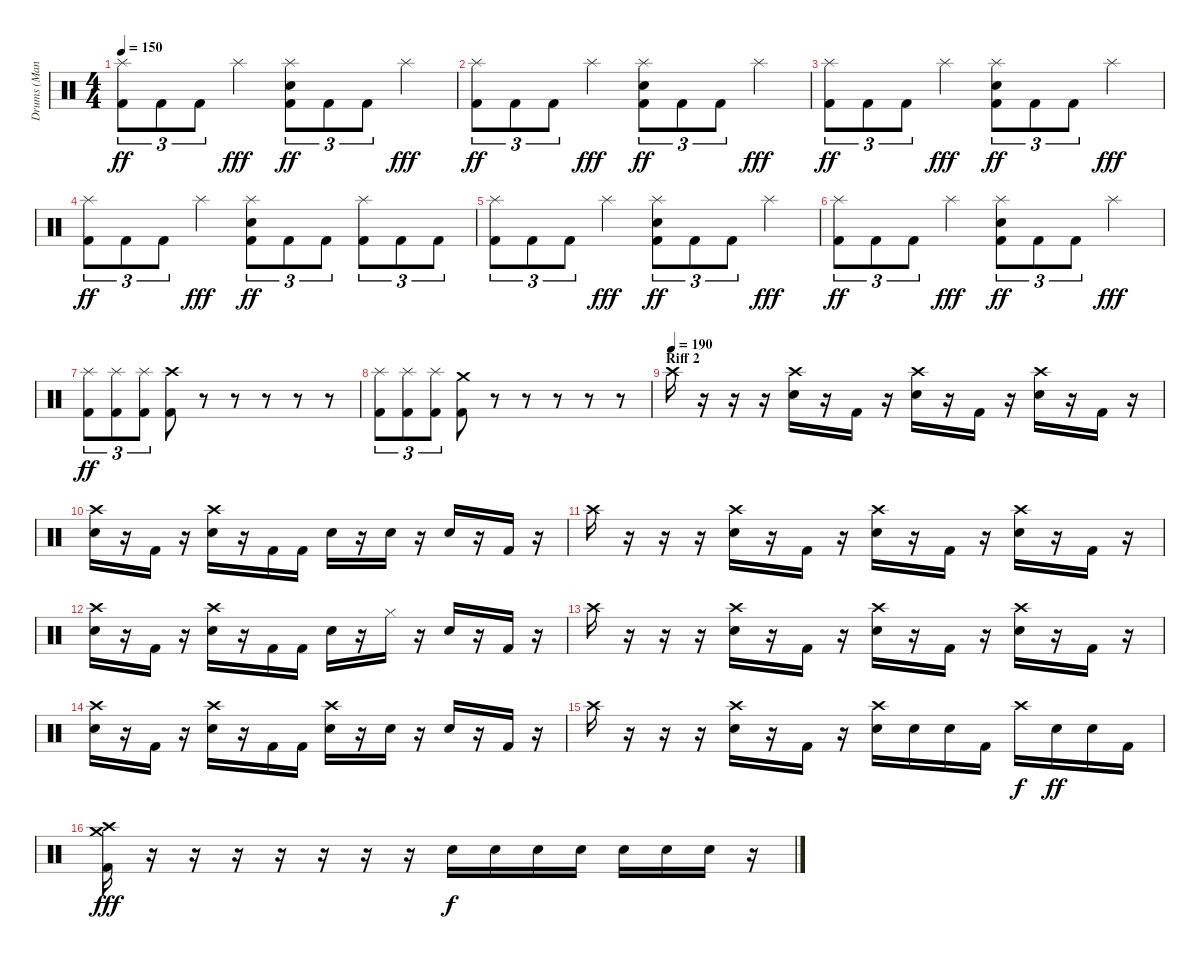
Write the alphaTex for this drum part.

\track ("Drums (Mancino)" "Drums (Man") {instrument percussion}
\staff {score}
\articulation defaults
\ts (4 4)
\tempo 150
\clef neutral
\ks c
("Splash (hit)" "Kick (hit) 2").8{tu (3 2) dy ff} "Kick (hit) 2".8{tu (3 2)} "Kick (hit) 2".8{tu (3 2)} "Splash (hit)".4{dy fff} ("Splash (hit)" "Electric Snare (hit)" "Kick (hit) 2").8{tu (3 2) dy ff} "Kick (hit) 2".8{tu (3 2)} "Kick (hit) 2".8{tu (3 2)} "Splash (hit)".4{dy fff} |
("Splash (hit)" "Kick (hit) 2").8{tu (3 2) dy ff} "Kick (hit) 2".8{tu (3 2)} "Kick (hit) 2".8{tu (3 2)} "Splash (hit)".4{dy fff} ("Splash (hit)" "Electric Snare (hit)" "Kick (hit) 2").8{tu (3 2) dy ff} "Kick (hit) 2".8{tu (3 2)} "Kick (hit) 2".8{tu (3 2)} "Splash (hit)".4{dy fff} |
("Splash (hit)" "Kick (hit) 2").8{tu (3 2) dy ff} "Kick (hit) 2".8{tu (3 2)} "Kick (hit) 2".8{tu (3 2)} "Splash (hit)".4{dy fff} ("Splash (hit)" "Electric Snare (hit)" "Kick (hit) 2").8{tu (3 2) dy ff} "Kick (hit) 2".8{tu (3 2)} "Kick (hit) 2".8{tu (3 2)} "Splash (hit)".4{dy fff} |
("Splash (hit)" "Kick (hit) 2").8{tu (3 2) dy ff} "Kick (hit) 2".8{tu (3 2)} "Kick (hit) 2".8{tu (3 2)} "Splash (hit)".4{dy fff} ("Splash (hit)" "Electric Snare (hit)" "Kick (hit) 2").8{tu (3 2) dy ff} "Kick (hit) 2".8{tu (3 2)} "Kick (hit) 2".8{tu (3 2)} ("Splash (hit)" "Kick (hit) 2").8{tu (3 2)} "Kick (hit) 2".8{tu (3 2)} "Kick (hit) 2".8{tu (3 2)} |
("Splash (hit)" "Kick (hit) 2").8{tu (3 2)} "Kick (hit) 2".8{tu (3 2)} "Kick (hit) 2".8{tu (3 2)} "Splash (hit)".4{dy fff} ("Splash (hit)" "Electric Snare (hit)" "Kick (hit) 2").8{tu (3 2) dy ff} "Kick (hit) 2".8{tu (3 2)} "Kick (hit) 2".8{tu (3 2)} "Splash (hit)".4{dy fff} |
("Splash (hit)" "Kick (hit) 2").8{tu (3 2) dy ff} "Kick (hit) 2".8{tu (3 2)} "Kick (hit) 2".8{tu (3 2)} "Splash (hit)".4{dy fff} ("Splash (hit)" "Electric Snare (hit)" "Kick (hit) 2").8{tu (3 2) dy ff} "Kick (hit) 2".8{tu (3 2)} "Kick (hit) 2".8{tu (3 2)} "Splash (hit)".4{dy fff} |
("Splash (hit)" "Kick (hit) 2").8{tu (3 2) dy ff} ("Splash (hit)" "Kick (hit) 2").8{tu (3 2)} ("Splash (hit)" "Kick (hit) 2").8{tu (3 2)} ("Crash high (hit)" "Kick (hit) 2").8 r.8 r.8 r.8 r.8 r.8 |
("Splash (hit)" "Kick (hit) 2").8{tu (3 2)} ("Splash (hit)" "Kick (hit) 2").8{tu (3 2)} ("Splash (hit)" "Kick (hit) 2").8{tu (3 2)} ("Crash medium (hit)" "Kick (hit) 2").8 r.8 r.8 r.8 r.8 r.8 |
\section ("" "Riff 2")
\tempo (190)
"Crash high (hit)".16 r.16 r.16 r.16 ("Crash high (hit)" "Electric Snare (hit)").16 r.16 "Kick (hit) 2".16 r.16 ("Crash high (hit)" "Electric Snare (hit)").16 r.16 "Kick (hit) 2".16 r.16 ("Crash high (hit)" "Electric Snare (hit)").16 r.16 "Kick (hit) 2".16 r.16 |
("Crash high (hit)" "Electric Snare (hit)").16 r.16 "Kick (hit) 2".16 r.16 ("Crash high (hit)" "Electric Snare (hit)").16 r.16 "Kick (hit) 2".16 "Kick (hit) 2".16 "Electric Snare (hit)".16 r.16 "Electric Snare (hit)".16 r.16 "Electric Snare (hit)".16 r.16 "Kick (hit) 2".16 r.16 |
"Crash high (hit)".16 r.16 r.16 r.16 ("Crash high (hit)" "Electric Snare (hit)").16 r.16 "Kick (hit) 2".16 r.16 ("Crash high (hit)" "Electric Snare (hit)").16 r.16 "Kick (hit) 2".16 r.16 ("Crash high (hit)" "Electric Snare (hit)").16 r.16 "Kick (hit) 2".16 r.16 |
("Crash high (hit)" "Electric Snare (hit)").16 r.16 "Kick (hit) 2".16 r.16 ("Crash high (hit)" "Electric Snare (hit)").16 r.16 "Kick (hit) 2".16 "Kick (hit) 2".16 "Electric Snare (hit)".16 r.16 "Hi-Hat (closed)".16 r.16 "Electric Snare (hit)".16 r.16 "Kick (hit) 2".16 r.16 |
"Crash high (hit)".16 r.16 r.16 r.16 ("Crash high (hit)" "Electric Snare (hit)").16 r.16 "Kick (hit) 2".16 r.16 ("Crash high (hit)" "Electric Snare (hit)").16 r.16 "Kick (hit) 2".16 r.16 ("Crash high (hit)" "Electric Snare (hit)").16 r.16 "Kick (hit) 2".16 r.16 |
("Crash high (hit)" "Electric Snare (hit)").16 r.16 "Kick (hit) 2".16 r.16 ("Crash high (hit)" "Electric Snare (hit)").16 r.16 "Kick (hit) 2".16 "Kick (hit) 2".16 ("Crash high (hit)" "Electric Snare (hit)").16 r.16 "Electric Snare (hit)".16 r.16 "Electric Snare (hit)".16 r.16 "Kick (hit) 2".16 r.16 |
"Crash high (hit)".16 r.16 r.16 r.16 ("Crash high (hit)" "Electric Snare (hit)").16 r.16 "Kick (hit) 2".16 r.16 ("Crash high (hit)" "Electric Snare (hit)").16 "Electric Snare (hit)".16 "Electric Snare (hit)".16 "Kick (hit) 2".16 "Crash high (hit)".16{dy f} "Electric Snare (hit)".16{dy ff} "Electric Snare (hit)".16 "Kick (hit) 2".16 |
("Crash medium (hit)" "Crash high (hit)" "Kick (hit) 2").16{dy fff} r.16 r.16 r.16 r.16 r.16 r.16 r.16 "Electric Snare (hit)".16{dy f} "Electric Snare (hit)".16 "Electric Snare (hit)".16 "Electric Snare (hit)".16 "Electric Snare (hit)".16 "Electric Snare (hit)".16 "Electric Snare (hit)".16 r.16
